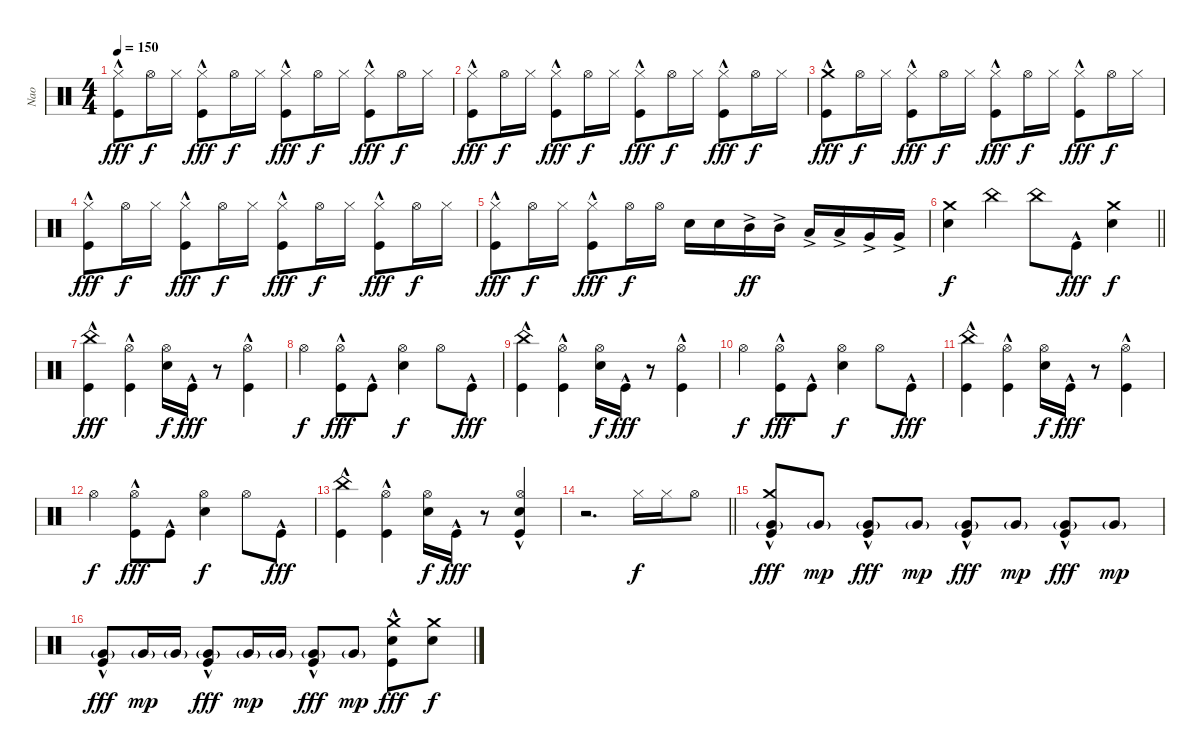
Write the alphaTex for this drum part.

\track ("Nao" "Nao") {instrument percussion}
\staff {score}
\articulation defaults
\ts (4 4)
\tempo 150
\clef neutral
\ks c
("Hi-Hat (closed)" "Kick (hit)"{hac}).8{dy fff} "Hi-Hat (open)".16{dy f} "Hi-Hat (closed)".16 ("Hi-Hat (closed)" "Kick (hit)"{hac}).8{dy fff} "Hi-Hat (open)".16{dy f} "Hi-Hat (closed)".16 ("Hi-Hat (closed)" "Kick (hit)"{hac}).8{dy fff} "Hi-Hat (open)".16{dy f} "Hi-Hat (closed)".16 ("Hi-Hat (closed)" "Kick (hit)"{hac}).8{dy fff} "Hi-Hat (open)".16{dy f} "Hi-Hat (closed)".16 |
("Hi-Hat (closed)" "Kick (hit)"{hac}).8{dy fff} "Hi-Hat (open)".16{dy f} "Hi-Hat (closed)".16 ("Hi-Hat (closed)" "Kick (hit)"{hac}).8{dy fff} "Hi-Hat (open)".16{dy f} "Hi-Hat (closed)".16 ("Hi-Hat (closed)" "Kick (hit)"{hac}).8{dy fff} "Hi-Hat (open)".16{dy f} "Hi-Hat (closed)".16 ("Hi-Hat (closed)" "Kick (hit)"{hac}).8{dy fff} "Hi-Hat (open)".16{dy f} "Hi-Hat (closed)".16 |
("Crash medium (hit)" "Kick (hit)"{hac}).8{dy fff} "Hi-Hat (open)".16{dy f} "Hi-Hat (closed)".16 ("Hi-Hat (closed)" "Kick (hit)"{hac}).8{dy fff} "Hi-Hat (open)".16{dy f} "Hi-Hat (closed)".16 ("Hi-Hat (closed)" "Kick (hit)"{hac}).8{dy fff} "Hi-Hat (open)".16{dy f} "Hi-Hat (closed)".16 ("Hi-Hat (closed)" "Kick (hit)"{hac}).8{dy fff} "Hi-Hat (open)".16{dy f} "Hi-Hat (closed)".16 |
("Hi-Hat (closed)" "Kick (hit)"{hac}).8{dy fff} "Hi-Hat (open)".16{dy f} "Hi-Hat (closed)".16 ("Hi-Hat (closed)" "Kick (hit)"{hac}).8{dy fff} "Hi-Hat (open)".16{dy f} "Hi-Hat (closed)".16 ("Hi-Hat (closed)" "Kick (hit)"{hac}).8{dy fff} "Hi-Hat (open)".16{dy f} "Hi-Hat (closed)".16 ("Hi-Hat (closed)" "Kick (hit)"{hac}).8{dy fff} "Hi-Hat (open)".16{dy f} "Hi-Hat (closed)".16 |
("Hi-Hat (closed)" "Kick (hit)"{hac}).8{dy fff} "Hi-Hat (open)".16{dy f} "Hi-Hat (closed)".16 ("Hi-Hat (closed)" "Kick (hit)"{hac}).8{dy fff} "Hi-Hat (open)".16{dy f} "Hi-Hat (open)".16 "Electric Snare (hit)".16 "Electric Snare (hit)".16 "Mid Tom (hit)"{ac}.16{dy ff} "Mid Tom (hit)"{ac}.16 "Low Tom (hit)"{ac}.16 "Low Tom (hit)"{ac}.16 "Very Low Tom (hit)"{ac}.16 "Very Low Tom (hit)"{ac}.16 |
\barLineRight lightlight
("Crash medium (hit)" "Electric Snare (hit)").4{dy f} "China (hit)".4 "China (hit)".8 "Kick (hit)"{hac}.8{dy fff} ("Crash medium (hit)" "Electric Snare (hit)").4{dy f} |
\section ("" "")
("China (hit)" "Kick (hit)"{hac}).4{dy fff} ("Hi-Hat (open)" "Kick (hit)"{hac}).4 ("Hi-Hat (open)" "Electric Snare (hit)").16{dy f} "Kick (hit)"{hac}.16{dy fff} r.8 ("Hi-Hat (open)" "Kick (hit)"{hac}).4 |
"Hi-Hat (open)".4{dy f} ("Hi-Hat (open)" "Kick (hit)"{hac}).8{dy fff} "Kick (hit)"{hac}.8 ("Hi-Hat (open)" "Electric Snare (hit)").4{dy f} "Hi-Hat (open)".8 "Kick (hit)"{hac}.8{dy fff} |
("China (hit)" "Kick (hit)"{hac}).4 ("Hi-Hat (open)" "Kick (hit)"{hac}).4 ("Hi-Hat (open)" "Electric Snare (hit)").16{dy f} "Kick (hit)"{hac}.16{dy fff} r.8 ("Hi-Hat (open)" "Kick (hit)"{hac}).4 |
"Hi-Hat (open)".4{dy f} ("Hi-Hat (open)" "Kick (hit)"{hac}).8{dy fff} "Kick (hit)"{hac}.8 ("Hi-Hat (open)" "Electric Snare (hit)").4{dy f} "Hi-Hat (open)".8 "Kick (hit)"{hac}.8{dy fff} |
("China (hit)" "Kick (hit)"{hac}).4 ("Hi-Hat (open)" "Kick (hit)"{hac}).4 ("Hi-Hat (open)" "Electric Snare (hit)").16{dy f} "Kick (hit)"{hac}.16{dy fff} r.8 ("Hi-Hat (open)" "Kick (hit)"{hac}).4 |
"Hi-Hat (open)".4{dy f} ("Hi-Hat (open)" "Kick (hit)"{hac}).8{dy fff} "Kick (hit)"{hac}.8 ("Hi-Hat (open)" "Electric Snare (hit)").4{dy f} "Hi-Hat (open)".8 "Kick (hit)"{hac}.8{dy fff} |
("China (hit)" "Kick (hit)"{hac}).4 ("Hi-Hat (open)" "Kick (hit)"{hac}).4 ("Hi-Hat (open)" "Electric Snare (hit)").16{dy f} "Kick (hit)"{hac}.16{dy fff} r.8 ("Hi-Hat (open)" "Electric Snare (hit)" "Kick (hit)"{hac}).4 |
\barLineRight lightlight
r.2{d} "Hi-Hat (closed)".16{dy f} "Hi-Hat (closed)".16 "Hi-Hat (open)".8 |
\section ("" "")
("Crash medium (hit)" "Very Low Tom (hit)"{g} "Kick (hit)"{hac}).8{dy fff} "Very Low Tom (hit)"{g}.8{dy mp} ("Very Low Tom (hit)"{g} "Kick (hit)"{hac}).8{dy fff} "Very Low Tom (hit)"{g}.8{dy mp} ("Very Low Tom (hit)"{g} "Kick (hit)"{hac}).8{dy fff} "Very Low Tom (hit)"{g}.8{dy mp} ("Very Low Tom (hit)"{g} "Kick (hit)"{hac}).8{dy fff} "Very Low Tom (hit)"{g}.8{dy mp} |
("Very Low Tom (hit)"{g} "Kick (hit)"{hac}).8{dy fff} "Very Low Tom (hit)"{g}.16{dy mp} "Very Low Tom (hit)"{g}.16 ("Very Low Tom (hit)"{g} "Kick (hit)"{hac}).8{dy fff} "Very Low Tom (hit)"{g}.16{dy mp} "Very Low Tom (hit)"{g}.16 ("Very Low Tom (hit)"{g} "Kick (hit)"{hac}).8{dy fff} "Very Low Tom (hit)"{g}.8{dy mp} ("Crash medium (hit)" "Electric Snare (hit)" "Kick (hit)"{hac}).8{dy fff} ("Crash medium (hit)" "Electric Snare (hit)").8{dy f}
